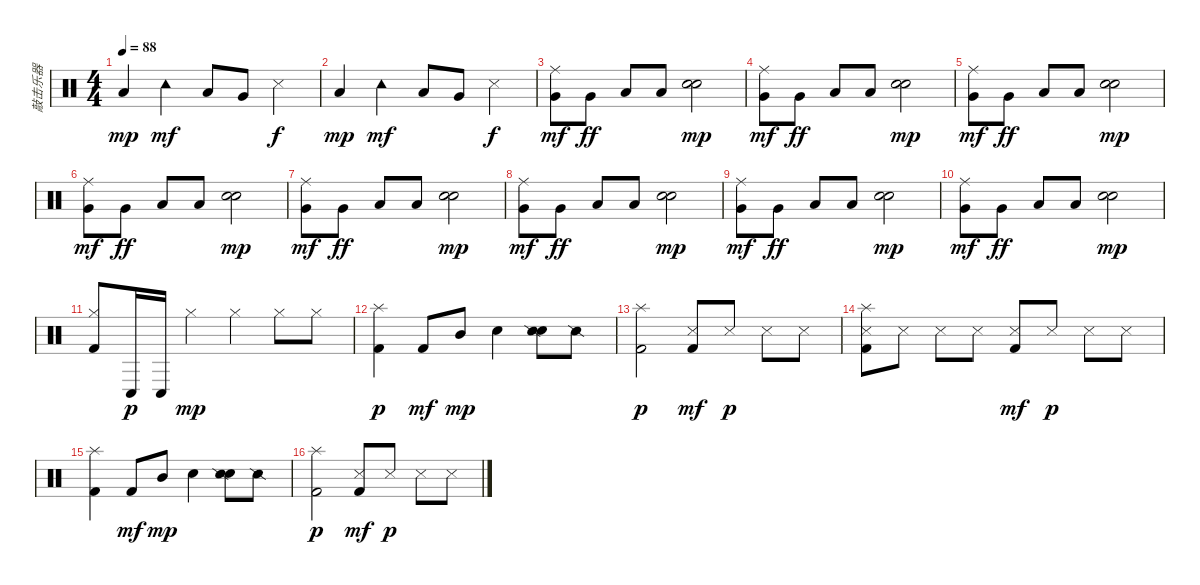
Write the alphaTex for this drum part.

\track ("敲击乐器" "敲击乐器") {instrument percussion}
\staff {score}
\articulation defaults
\ts (4 4)
\tempo 88
\clef neutral
\ks c "Low Floor Tom (hit)".4{dy mp} "Tambourine (hit)".4{dy mf} "Low Floor Tom (hit)".8 "Very Low Tom (hit)".8 "Snare (side stick) 3".4{dy f}
|
"Low Floor Tom (hit)".4{dy mp} "Tambourine (hit)".4{dy mf} "Low Floor Tom (hit)".8 "Very Low Tom (hit)".8 "Snare (side stick) 3".4{dy f} |
("Very Low Tom (hit)" "Ride (middle)").8{dy mf} "Very Low Tom (hit)".8{dy ff} "Low Floor Tom (hit)".8 "Low Floor Tom (hit)".8 ("Hand Clap (hit)" "Snare (hit) 2").2{dy mp} |
("Very Low Tom (hit)" "Ride (middle)").8{dy mf} "Very Low Tom (hit)".8{dy ff} "Low Floor Tom (hit)".8 "Low Floor Tom (hit)".8 ("Hand Clap (hit)" "Snare (hit) 2").2{dy mp} |
("Very Low Tom (hit)" "Ride (middle)").8{dy mf} "Very Low Tom (hit)".8{dy ff} "Low Floor Tom (hit)".8 "Low Floor Tom (hit)".8 ("Hand Clap (hit)" "Snare (hit) 2").2{dy mp} |
("Very Low Tom (hit)" "Ride (middle)").8{dy mf} "Very Low Tom (hit)".8{dy ff} "Low Floor Tom (hit)".8 "Low Floor Tom (hit)".8 ("Hand Clap (hit)" "Snare (hit) 2").2{dy mp} |
("Very Low Tom (hit)" "Ride (middle)").8{dy mf} "Very Low Tom (hit)".8{dy ff} "Low Floor Tom (hit)".8 "Low Floor Tom (hit)".8 ("Hand Clap (hit)" "Snare (hit) 2").2{dy mp} |
("Very Low Tom (hit)" "Ride (middle)").8{dy mf} "Very Low Tom (hit)".8{dy ff} "Low Floor Tom (hit)".8 "Low Floor Tom (hit)".8 ("Hand Clap (hit)" "Snare (hit) 2").2{dy mp} |
("Very Low Tom (hit)" "Ride (middle)").8{dy mf} "Very Low Tom (hit)".8{dy ff} "Low Floor Tom (hit)".8 "Low Floor Tom (hit)".8 ("Hand Clap (hit)" "Snare (hit) 2").2{dy mp} |
("Very Low Tom (hit)" "Ride (middle)").8{dy mf} "Very Low Tom (hit)".8{dy ff} "Low Floor Tom (hit)".8 "Low Floor Tom (hit)".8 ("Hand Clap (hit)" "Snare (hit) 2").2{dy mp} |
("Hi-Hat (closed)" "Kick (hit) 2").8 "Conga low (hit)".16{dy p} "Conga low (hit)".16 "Hi-Hat (closed)".4{dy mp} "Hi-Hat (closed)".4 "Hi-Hat (closed)".8 "Hi-Hat (closed)".8 |
("Kick (hit) 2" "Splash (hit)").4{dy p} "Kick (hit) 2".8{dy mf} "Mid Tom (hit)".8{dy mp} "Snare (hit) 2".4 ("Snare (hit) 2" "Snare (side stick) 2").8 "Snare (side stick) 2".8 |
("Kick (hit) 2" "Splash (hit)").2{dy p} ("Kick (hit) 2" "Snare (side stick) 3").8{dy mf} "Snare (side stick) 3".8{dy p} "Snare (side stick) 3".8 "Snare (side stick) 3".8 |
("Kick (hit) 2" "Snare (side stick) 3" "Splash (hit)").8 "Snare (side stick) 3".8 "Snare (side stick) 3".8 "Snare (side stick) 3".8 ("Kick (hit) 2" "Snare (side stick) 3").8{dy mf} "Snare (side stick) 3".8{dy p} "Snare (side stick) 3".8 "Snare (side stick) 3".8 |
("Kick (hit) 2" "Splash (hit)").4 "Kick (hit) 2".8{dy mf} "Mid Tom (hit)".8{dy mp} "Snare (hit) 2".4 ("Snare (hit) 2" "Snare (side stick) 2").8 "Snare (side stick) 2".8 |
("Kick (hit) 2" "Splash (hit)").2{dy p} ("Kick (hit) 2" "Snare (side stick) 3").8{dy mf} "Snare (side stick) 3".8{dy p} "Snare (side stick) 3".8 "Snare (side stick) 3".8
